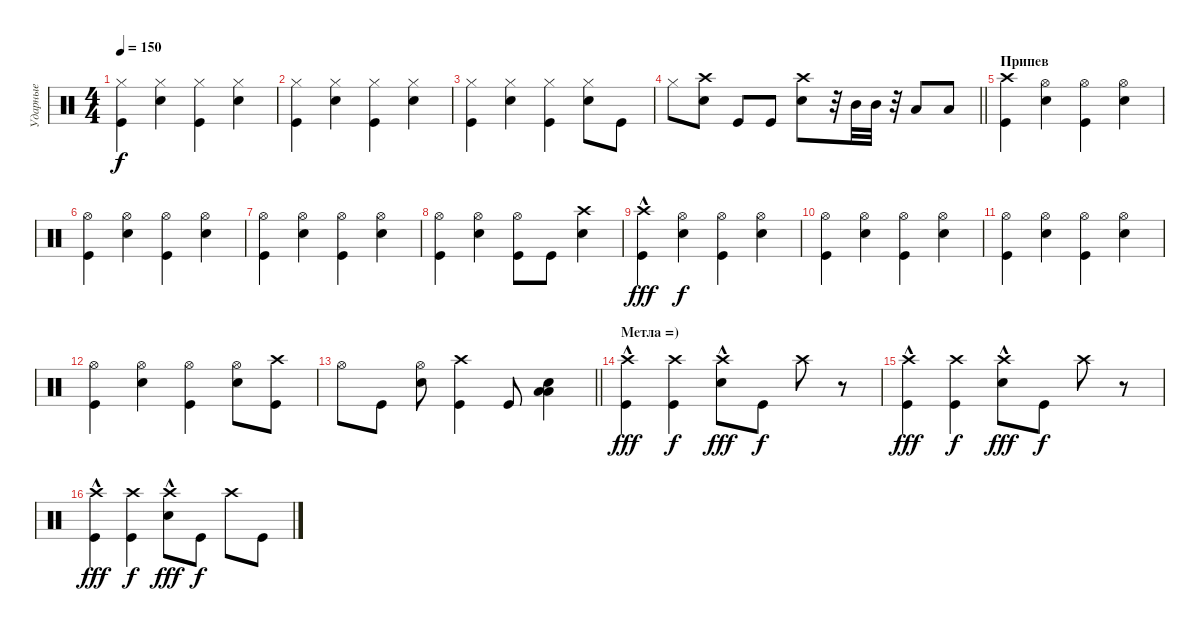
\track ("Ударные" "Ударные") {instrument percussion}
\staff {score}
\articulation defaults
\ts (4 4)
\tempo 150
\clef neutral
\ks c
("Hi-Hat (closed)" "Kick (hit)").4{dy f} ("Hi-Hat (closed)" "Snare (hit) 2").4 ("Hi-Hat (closed)" "Kick (hit)").4 ("Hi-Hat (closed)" "Snare (hit) 2").4 |
("Hi-Hat (closed)" "Kick (hit)").4 ("Hi-Hat (closed)" "Snare (hit) 2").4 ("Hi-Hat (closed)" "Kick (hit)").4 ("Hi-Hat (closed)" "Snare (hit) 2").4 |
("Hi-Hat (closed)" "Kick (hit)").4 ("Hi-Hat (closed)" "Snare (hit) 2").4 ("Hi-Hat (closed)" "Kick (hit)").4 ("Hi-Hat (closed)" "Snare (hit) 2").8 "Kick (hit)".8 |
\barLineRight lightlight "Hi-Hat (closed)".8
("Crash high (hit)" "Snare (hit) 2").8 "Kick (hit)".8 "Kick (hit)".8 ("Crash high (hit)" "Snare (hit) 2").8 r.32 "Mid Tom (hit)".32 "Mid Tom (hit)".32 r.32 "Low Tom (hit)".8 "Low Tom (hit)".8 |
\section ("" "Припев")
("Crash high (hit)" "Kick (hit)").4 ("Hi-Hat (open)" "Snare (hit) 2").4 ("Hi-Hat (open)" "Kick (hit)").4 ("Hi-Hat (open)" "Snare (hit) 2").4 |
("Hi-Hat (open)" "Kick (hit)").4 ("Hi-Hat (open)" "Snare (hit) 2").4 ("Hi-Hat (open)" "Kick (hit)").4 ("Hi-Hat (open)" "Snare (hit) 2").4 |
("Hi-Hat (open)" "Kick (hit)").4 ("Hi-Hat (open)" "Snare (hit) 2").4 ("Hi-Hat (open)" "Kick (hit)").4 ("Hi-Hat (open)" "Snare (hit) 2").4 |
("Hi-Hat (open)" "Kick (hit)").4 ("Hi-Hat (open)" "Snare (hit) 2").4 ("Hi-Hat (open)" "Kick (hit)").8 "Kick (hit)".8 ("Crash high (hit)" "Snare (hit) 2").4 |
("Crash high (hit)"{hac} "Kick (hit)").4{dy fff} ("Hi-Hat (open)" "Snare (hit) 2").4{dy f} ("Hi-Hat (open)" "Kick (hit)").4 ("Hi-Hat (open)" "Snare (hit) 2").4 |
("Hi-Hat (open)" "Kick (hit)").4 ("Hi-Hat (open)" "Snare (hit) 2").4 ("Hi-Hat (open)" "Kick (hit)").4 ("Hi-Hat (open)" "Snare (hit) 2").4 |
("Hi-Hat (open)" "Kick (hit)").4 ("Hi-Hat (open)" "Snare (hit) 2").4 ("Hi-Hat (open)" "Kick (hit)").4 ("Hi-Hat (open)" "Snare (hit) 2").4 |
("Hi-Hat (open)" "Kick (hit)").4 ("Hi-Hat (open)" "Snare (hit) 2").4 ("Hi-Hat (open)" "Kick (hit)").4 ("Hi-Hat (open)" "Snare (hit) 2").8 ("Crash high (hit)" "Kick (hit)").8 |
\barLineRight lightlight "Hi-Hat (open)".8 "Kick (hit)".8
("Hi-Hat (open)" "Snare (hit) 2").8 ("Crash high (hit)" "Kick (hit)").4 "Kick (hit)".8 ("Low Tom (hit)" "Low Tom (hit)" "Snare (hit) 2").4 |
\section ("" "Метла =)")
("Crash high (hit)"{hac} "Kick (hit)").4{dy fff} ("Crash high (hit)" "Kick (hit)").4{dy f} ("Crash high (hit)"{hac} "Snare (hit) 2").8{dy fff} "Kick (hit)".8{dy f} "Crash high (hit)".8 r.8 |
("Crash high (hit)"{hac} "Kick (hit)").4{dy fff} ("Crash high (hit)" "Kick (hit)").4{dy f} ("Crash high (hit)"{hac} "Snare (hit) 2").8{dy fff} "Kick (hit)".8{dy f} "Crash high (hit)".8 r.8 |
("Crash high (hit)"{hac} "Kick (hit)").4{dy fff} ("Crash high (hit)" "Kick (hit)").4{dy f} ("Crash high (hit)"{hac} "Snare (hit) 2").8{dy fff} "Kick (hit)".8{dy f} "Crash high (hit)".8 "Kick (hit)".8
